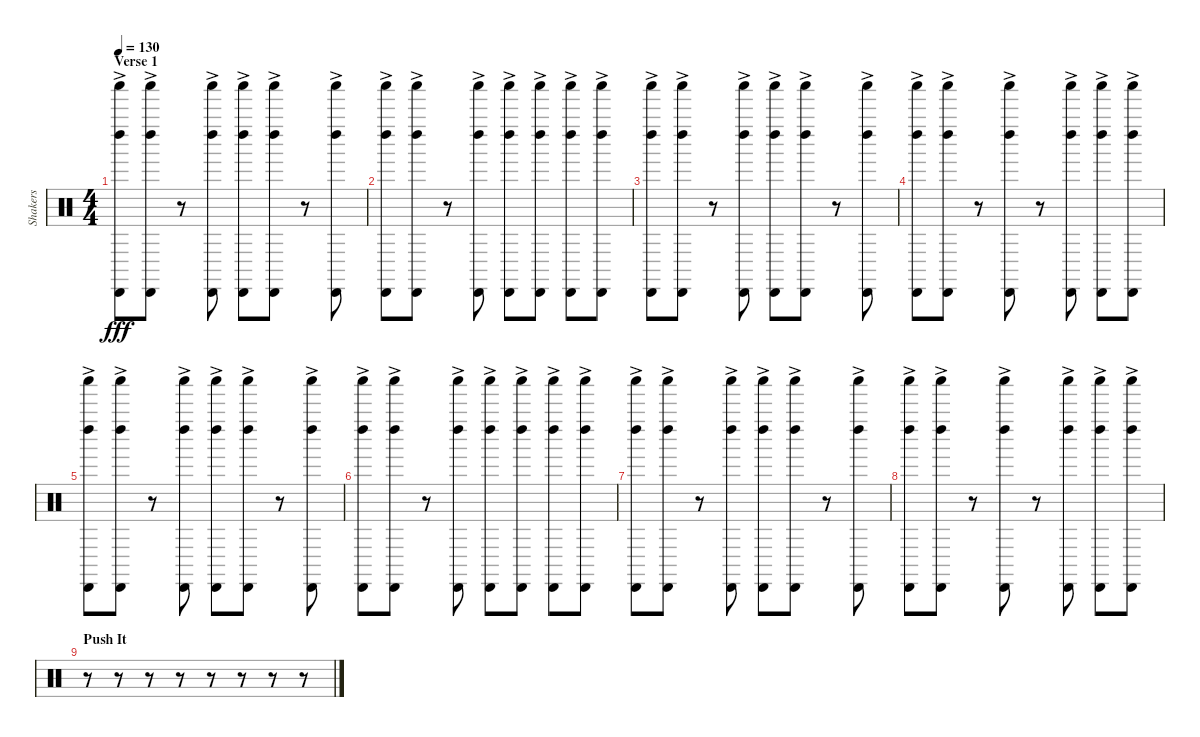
\track ("Shakers" "Shakers") {instrument percussion}
\staff {score}
\articulation defaults
\ts (4 4)
\section ("" "Verse 1")
\tempo 130
\clef neutral
\ks c
("Cabasa (hit)"{ac} "Left Maraca (hit)"{ac} "Shaker (hit)"{ac}).8{dy fff} ("Cabasa (hit)"{ac} "Left Maraca (hit)"{ac} "Shaker (hit)"{ac}).8 r.8 ("Cabasa (hit)"{ac} "Left Maraca (hit)"{ac} "Shaker (hit)"{ac}).8 ("Cabasa (hit)"{ac} "Left Maraca (hit)"{ac} "Shaker (hit)"{ac}).8 ("Cabasa (hit)"{ac} "Left Maraca (hit)"{ac} "Shaker (hit)"{ac}).8 r.8 ("Cabasa (hit)"{ac} "Left Maraca (hit)"{ac} "Shaker (hit)"{ac}).8 |
("Cabasa (hit)"{ac} "Left Maraca (hit)"{ac} "Shaker (hit)"{ac}).8 ("Cabasa (hit)"{ac} "Left Maraca (hit)"{ac} "Shaker (hit)"{ac}).8 r.8 ("Cabasa (hit)"{ac} "Left Maraca (hit)"{ac} "Shaker (hit)"{ac}).8 ("Cabasa (hit)"{ac} "Left Maraca (hit)"{ac} "Shaker (hit)"{ac}).8 ("Cabasa (hit)"{ac} "Left Maraca (hit)"{ac} "Shaker (hit)"{ac}).8 ("Cabasa (hit)"{ac} "Left Maraca (hit)"{ac} "Shaker (hit)"{ac}).8 ("Cabasa (hit)"{ac} "Left Maraca (hit)"{ac} "Shaker (hit)"{ac}).8 |
("Cabasa (hit)"{ac} "Left Maraca (hit)"{ac} "Shaker (hit)"{ac}).8 ("Cabasa (hit)"{ac} "Left Maraca (hit)"{ac} "Shaker (hit)"{ac}).8 r.8 ("Cabasa (hit)"{ac} "Left Maraca (hit)"{ac} "Shaker (hit)"{ac}).8 ("Cabasa (hit)"{ac} "Left Maraca (hit)"{ac} "Shaker (hit)"{ac}).8 ("Cabasa (hit)"{ac} "Left Maraca (hit)"{ac} "Shaker (hit)"{ac}).8 r.8 ("Cabasa (hit)"{ac} "Left Maraca (hit)"{ac} "Shaker (hit)"{ac}).8 |
("Cabasa (hit)"{ac} "Left Maraca (hit)"{ac} "Shaker (hit)"{ac}).8 ("Cabasa (hit)"{ac} "Left Maraca (hit)"{ac} "Shaker (hit)"{ac}).8 r.8 ("Cabasa (hit)"{ac} "Left Maraca (hit)"{ac} "Shaker (hit)"{ac}).8 r.8 ("Cabasa (hit)"{ac} "Left Maraca (hit)"{ac} "Shaker (hit)"{ac}).8 ("Cabasa (hit)"{ac} "Left Maraca (hit)"{ac} "Shaker (hit)"{ac}).8 ("Cabasa (hit)"{ac} "Left Maraca (hit)"{ac} "Shaker (hit)"{ac}).8 |
("Cabasa (hit)"{ac} "Left Maraca (hit)"{ac} "Shaker (hit)"{ac}).8 ("Cabasa (hit)"{ac} "Left Maraca (hit)"{ac} "Shaker (hit)"{ac}).8 r.8 ("Cabasa (hit)"{ac} "Left Maraca (hit)"{ac} "Shaker (hit)"{ac}).8 ("Cabasa (hit)"{ac} "Left Maraca (hit)"{ac} "Shaker (hit)"{ac}).8 ("Cabasa (hit)"{ac} "Left Maraca (hit)"{ac} "Shaker (hit)"{ac}).8 r.8 ("Cabasa (hit)"{ac} "Left Maraca (hit)"{ac} "Shaker (hit)"{ac}).8 |
("Cabasa (hit)"{ac} "Left Maraca (hit)"{ac} "Shaker (hit)"{ac}).8 ("Cabasa (hit)"{ac} "Left Maraca (hit)"{ac} "Shaker (hit)"{ac}).8 r.8 ("Cabasa (hit)"{ac} "Left Maraca (hit)"{ac} "Shaker (hit)"{ac}).8 ("Cabasa (hit)"{ac} "Left Maraca (hit)"{ac} "Shaker (hit)"{ac}).8 ("Cabasa (hit)"{ac} "Left Maraca (hit)"{ac} "Shaker (hit)"{ac}).8 ("Cabasa (hit)"{ac} "Left Maraca (hit)"{ac} "Shaker (hit)"{ac}).8 ("Cabasa (hit)"{ac} "Left Maraca (hit)"{ac} "Shaker (hit)"{ac}).8 |
("Cabasa (hit)"{ac} "Left Maraca (hit)"{ac} "Shaker (hit)"{ac}).8 ("Cabasa (hit)"{ac} "Left Maraca (hit)"{ac} "Shaker (hit)"{ac}).8 r.8 ("Cabasa (hit)"{ac} "Left Maraca (hit)"{ac} "Shaker (hit)"{ac}).8 ("Cabasa (hit)"{ac} "Left Maraca (hit)"{ac} "Shaker (hit)"{ac}).8 ("Cabasa (hit)"{ac} "Left Maraca (hit)"{ac} "Shaker (hit)"{ac}).8 r.8 ("Cabasa (hit)"{ac} "Left Maraca (hit)"{ac} "Shaker (hit)"{ac}).8 |
("Cabasa (hit)"{ac} "Left Maraca (hit)"{ac} "Shaker (hit)"{ac}).8 ("Cabasa (hit)"{ac} "Left Maraca (hit)"{ac} "Shaker (hit)"{ac}).8 r.8 ("Cabasa (hit)"{ac} "Left Maraca (hit)"{ac} "Shaker (hit)"{ac}).8 r.8 ("Cabasa (hit)"{ac} "Left Maraca (hit)"{ac} "Shaker (hit)"{ac}).8 ("Cabasa (hit)"{ac} "Left Maraca (hit)"{ac} "Shaker (hit)"{ac}).8 ("Cabasa (hit)"{ac} "Left Maraca (hit)"{ac} "Shaker (hit)"{ac}).8 |
\section ("" "Push It")
r.8 r.8 r.8 r.8 r.8 r.8 r.8 r.8
